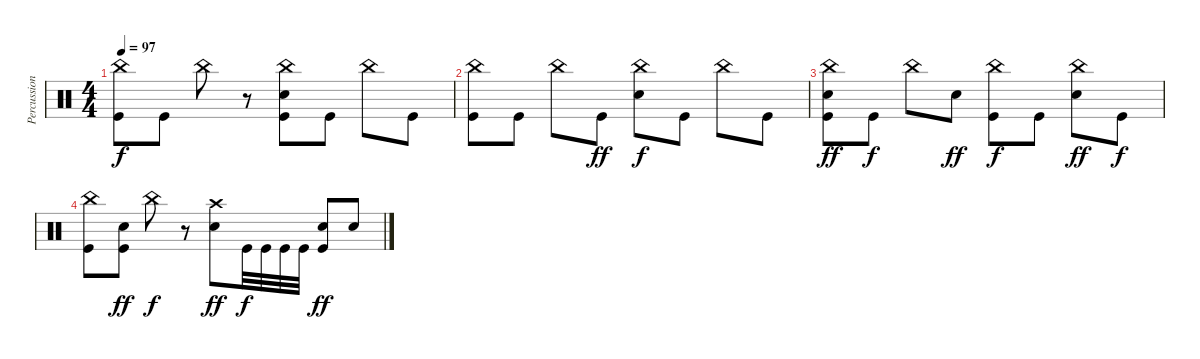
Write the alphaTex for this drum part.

\track ("Percussion" "Percussion") {instrument percussion}
\staff {score}
\articulation defaults
\ts (4 4)
\tempo 97
\clef neutral
\ks c
("China (hit)" "Kick (hit)").8{dy f} "Kick (hit)".8 "China (hit)".8 r.8 ("China (hit)" "Snare (hit) 2" "Kick (hit)").8 "Kick (hit)".8 "China (hit)".8 "Kick (hit)".8 |
("China (hit)" "Kick (hit)").8 "Kick (hit)".8 "China (hit)".8 "Kick (hit)".8{dy ff} ("China (hit)" "Snare (hit) 2").8{dy f} "Kick (hit)".8 "China (hit)".8 "Kick (hit)".8 |
("China (hit)" "Snare (hit) 2" "Kick (hit)").8{dy ff} "Kick (hit)".8{dy f} "China (hit)".8 "Snare (hit) 2".8{dy ff} ("China (hit)" "Kick (hit)").8{dy f} "Kick (hit)".8 ("China (hit)" "Snare (hit) 2").8{dy ff} "Kick (hit)".8{dy f} |
("China (hit)" "Kick (hit)").8 ("Snare (hit) 2" "Kick (hit)").8{dy ff} "China (hit)".8{dy f} r.8 ("Crash high (hit)" "Snare (hit) 2").8{dy ff} "Kick (hit)".32{dy f} "Kick (hit)".32 "Kick (hit)".32 "Kick (hit)".32 ("Snare (hit) 2" "Kick (hit)").8{dy ff} "Snare (hit) 2".8
